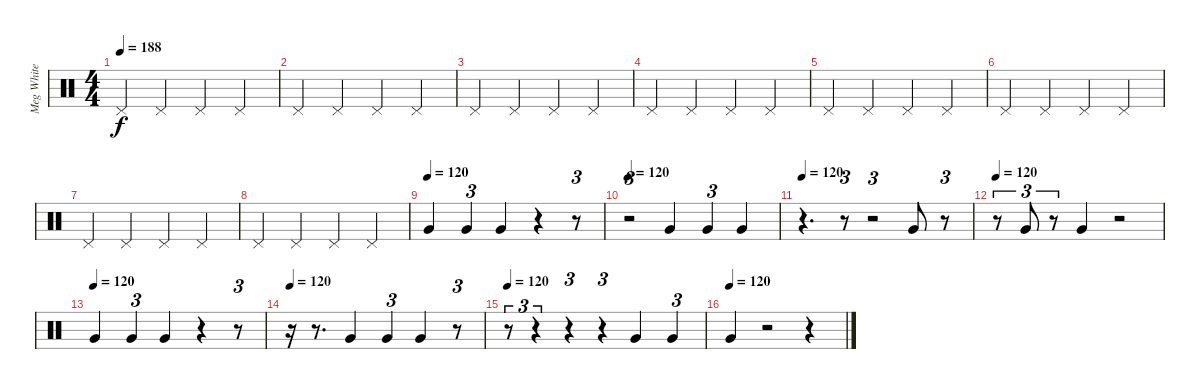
\track ("Meg White" "Meg White") {instrument percussion}
\staff {score}
\articulation defaults
\ts (4 4)
\tempo 188
\clef neutral
\ks c "Pedal Hi-Hat (hit)".4{dy f} "Pedal Hi-Hat (hit)".4 "Pedal Hi-Hat (hit)".4 "Pedal Hi-Hat (hit)".4
|
"Pedal Hi-Hat (hit)".4 "Pedal Hi-Hat (hit)".4 "Pedal Hi-Hat (hit)".4 "Pedal Hi-Hat (hit)".4 |
"Pedal Hi-Hat (hit)".4 "Pedal Hi-Hat (hit)".4 "Pedal Hi-Hat (hit)".4 "Pedal Hi-Hat (hit)".4 |
"Pedal Hi-Hat (hit)".4 "Pedal Hi-Hat (hit)".4 "Pedal Hi-Hat (hit)".4 "Pedal Hi-Hat (hit)".4 |
"Pedal Hi-Hat (hit)".4 "Pedal Hi-Hat (hit)".4 "Pedal Hi-Hat (hit)".4 "Pedal Hi-Hat (hit)".4 |
"Pedal Hi-Hat (hit)".4 "Pedal Hi-Hat (hit)".4 "Pedal Hi-Hat (hit)".4 "Pedal Hi-Hat (hit)".4 |
"Pedal Hi-Hat (hit)".4 "Pedal Hi-Hat (hit)".4 "Pedal Hi-Hat (hit)".4 "Pedal Hi-Hat (hit)".4 |
"Pedal Hi-Hat (hit)".4 "Pedal Hi-Hat (hit)".4 "Pedal Hi-Hat (hit)".4 "Pedal Hi-Hat (hit)".4 |
\tempo (120)
"Very Low Tom (hit)".4 "Very Low Tom (hit)".4{tu (3 2)} "Very Low Tom (hit)".4 r.4 r.8{tu (3 2)} |
\tempo 120
r.2{tu (3 2)} "Very Low Tom (hit)".4 "Very Low Tom (hit)".4{tu (3 2)} "Very Low Tom (hit)".4 |
\tempo 120
r.4{d} r.8{tu (3 2)} r.2{tu (3 2)} "Very Low Tom (hit)".8 r.8{tu (3 2)} |
\tempo 120
r.8{tu (3 2)} "Very Low Tom (hit)".8{tu (3 2)} r.8{tu (3 2)} "Very Low Tom (hit)".4 r.2 |
\tempo (120)
"Very Low Tom (hit)".4 "Very Low Tom (hit)".4{tu (3 2)} "Very Low Tom (hit)".4 r.4 r.8{tu (3 2)} |
\tempo 120
r.16 r.8{d} "Very Low Tom (hit)".4 "Very Low Tom (hit)".4{tu (3 2)} "Very Low Tom (hit)".4 r.8{tu (3 2)} |
\tempo 120
r.8{tu (3 2)} r.4{tu (3 2)} r.4{tu (3 2)} r.4{tu (3 2)} "Very Low Tom (hit)".4 "Very Low Tom (hit)".4{tu (3 2)} |
\tempo (120)
"Very Low Tom (hit)".4 r.2 r.4
